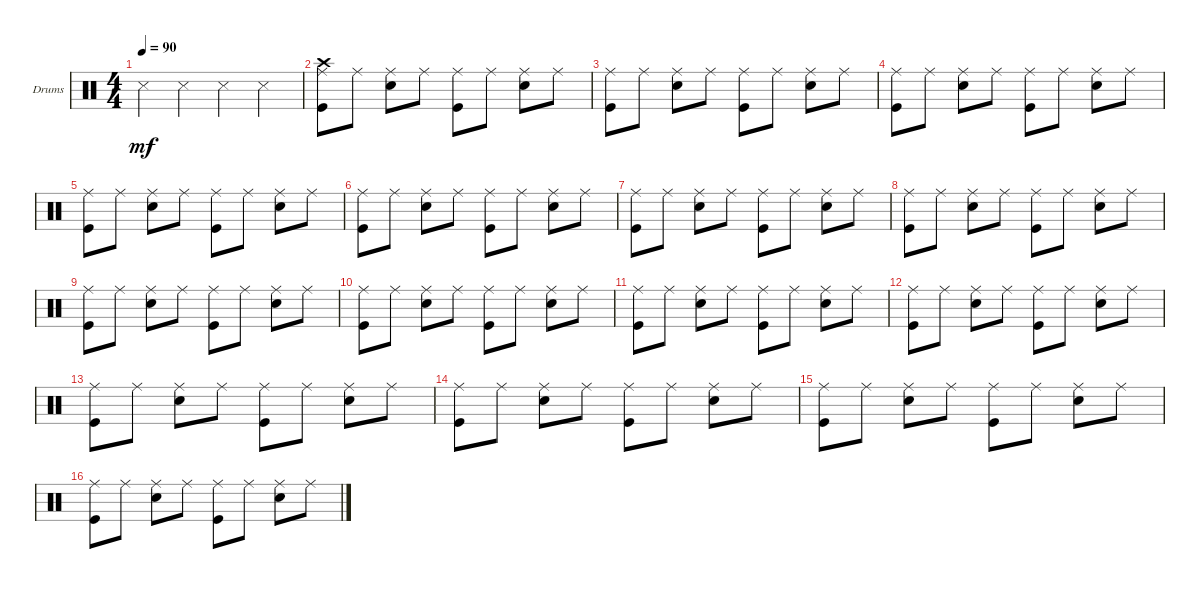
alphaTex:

\defaultSystemsLayout 4
\bracketExtendMode groupsimilarinstruments
\firstSystemTrackNameOrientation horizontal
\otherSystemsTrackNameOrientation horizontal
\track ("Drumkit" "Drums") {instrument percussion}
\staff {score}
\articulation defaults
\ts (4 4)
\tempo 90
\clef neutral
\ks c "Snare (side stick) 3".4{dy mf} "Snare (side stick) 3".4 "Snare (side stick) 3".4 "Snare (side stick) 3".4
|
("Ride (middle)" "Kick (hit)" "Crash high (hit)").8 "Ride (middle)".8 ("Ride (middle)" "Snare (hit) 2").8 "Ride (middle)".8 ("Ride (middle)" "Kick (hit)").8 "Ride (middle)".8 ("Ride (middle)" "Snare (hit) 2").8 "Ride (middle)".8 |
("Ride (middle)" "Kick (hit)").8 "Ride (middle)".8 ("Ride (middle)" "Snare (hit) 2").8 "Ride (middle)".8 ("Ride (middle)" "Kick (hit)").8 "Ride (middle)".8 ("Ride (middle)" "Snare (hit) 2").8 "Ride (middle)".8 |
("Ride (middle)" "Kick (hit)").8 "Ride (middle)".8 ("Ride (middle)" "Snare (hit) 2").8 "Ride (middle)".8 ("Ride (middle)" "Kick (hit)").8 "Ride (middle)".8 ("Ride (middle)" "Snare (hit) 2").8 "Ride (middle)".8 |
("Ride (middle)" "Kick (hit)").8 "Ride (middle)".8 ("Ride (middle)" "Snare (hit) 2").8 "Ride (middle)".8 ("Ride (middle)" "Kick (hit)").8 "Ride (middle)".8 ("Ride (middle)" "Snare (hit) 2").8 "Ride (middle)".8 |
("Ride (middle)" "Kick (hit)").8 "Ride (middle)".8 ("Ride (middle)" "Snare (hit) 2").8 "Ride (middle)".8 ("Ride (middle)" "Kick (hit)").8 "Ride (middle)".8 ("Ride (middle)" "Snare (hit) 2").8 "Ride (middle)".8 |
("Ride (middle)" "Kick (hit)").8 "Ride (middle)".8 ("Ride (middle)" "Snare (hit) 2").8 "Ride (middle)".8 ("Ride (middle)" "Kick (hit)").8 "Ride (middle)".8 ("Ride (middle)" "Snare (hit) 2").8 "Ride (middle)".8 |
("Ride (middle)" "Kick (hit)").8 "Ride (middle)".8 ("Ride (middle)" "Snare (hit) 2").8 "Ride (middle)".8 ("Ride (middle)" "Kick (hit)").8 "Ride (middle)".8 ("Ride (middle)" "Snare (hit) 2").8 "Ride (middle)".8 |
("Ride (middle)" "Kick (hit)").8 "Ride (middle)".8 ("Ride (middle)" "Snare (hit) 2").8 "Ride (middle)".8 ("Ride (middle)" "Kick (hit)").8 "Ride (middle)".8 ("Ride (middle)" "Snare (hit) 2").8 "Ride (middle)".8 |
("Ride (middle)" "Kick (hit)").8 "Ride (middle)".8 ("Ride (middle)" "Snare (hit) 2").8 "Ride (middle)".8 ("Ride (middle)" "Kick (hit)").8 "Ride (middle)".8 ("Ride (middle)" "Snare (hit) 2").8 "Ride (middle)".8 |
("Ride (middle)" "Kick (hit)").8 "Ride (middle)".8 ("Ride (middle)" "Snare (hit) 2").8 "Ride (middle)".8 ("Ride (middle)" "Kick (hit)").8 "Ride (middle)".8 ("Ride (middle)" "Snare (hit) 2").8 "Ride (middle)".8 |
("Ride (middle)" "Kick (hit)").8 "Ride (middle)".8 ("Ride (middle)" "Snare (hit) 2").8 "Ride (middle)".8 ("Ride (middle)" "Kick (hit)").8 "Ride (middle)".8 ("Ride (middle)" "Snare (hit) 2").8 "Ride (middle)".8 |
("Ride (middle)" "Kick (hit)").8 "Ride (middle)".8 ("Ride (middle)" "Snare (hit) 2").8 "Ride (middle)".8 ("Ride (middle)" "Kick (hit)").8 "Ride (middle)".8 ("Ride (middle)" "Snare (hit) 2").8 "Ride (middle)".8 |
("Ride (middle)" "Kick (hit)").8 "Ride (middle)".8 ("Ride (middle)" "Snare (hit) 2").8 "Ride (middle)".8 ("Ride (middle)" "Kick (hit)").8 "Ride (middle)".8 ("Ride (middle)" "Snare (hit) 2").8 "Ride (middle)".8 |
("Ride (middle)" "Kick (hit)").8 "Ride (middle)".8 ("Ride (middle)" "Snare (hit) 2").8 "Ride (middle)".8 ("Ride (middle)" "Kick (hit)").8 "Ride (middle)".8 ("Ride (middle)" "Snare (hit) 2").8 "Ride (middle)".8 |
("Ride (middle)" "Kick (hit)").8 "Ride (middle)".8 ("Ride (middle)" "Snare (hit) 2").8 "Ride (middle)".8 ("Ride (middle)" "Kick (hit)").8 "Ride (middle)".8 ("Ride (middle)" "Snare (hit) 2").8 "Ride (middle)".8
